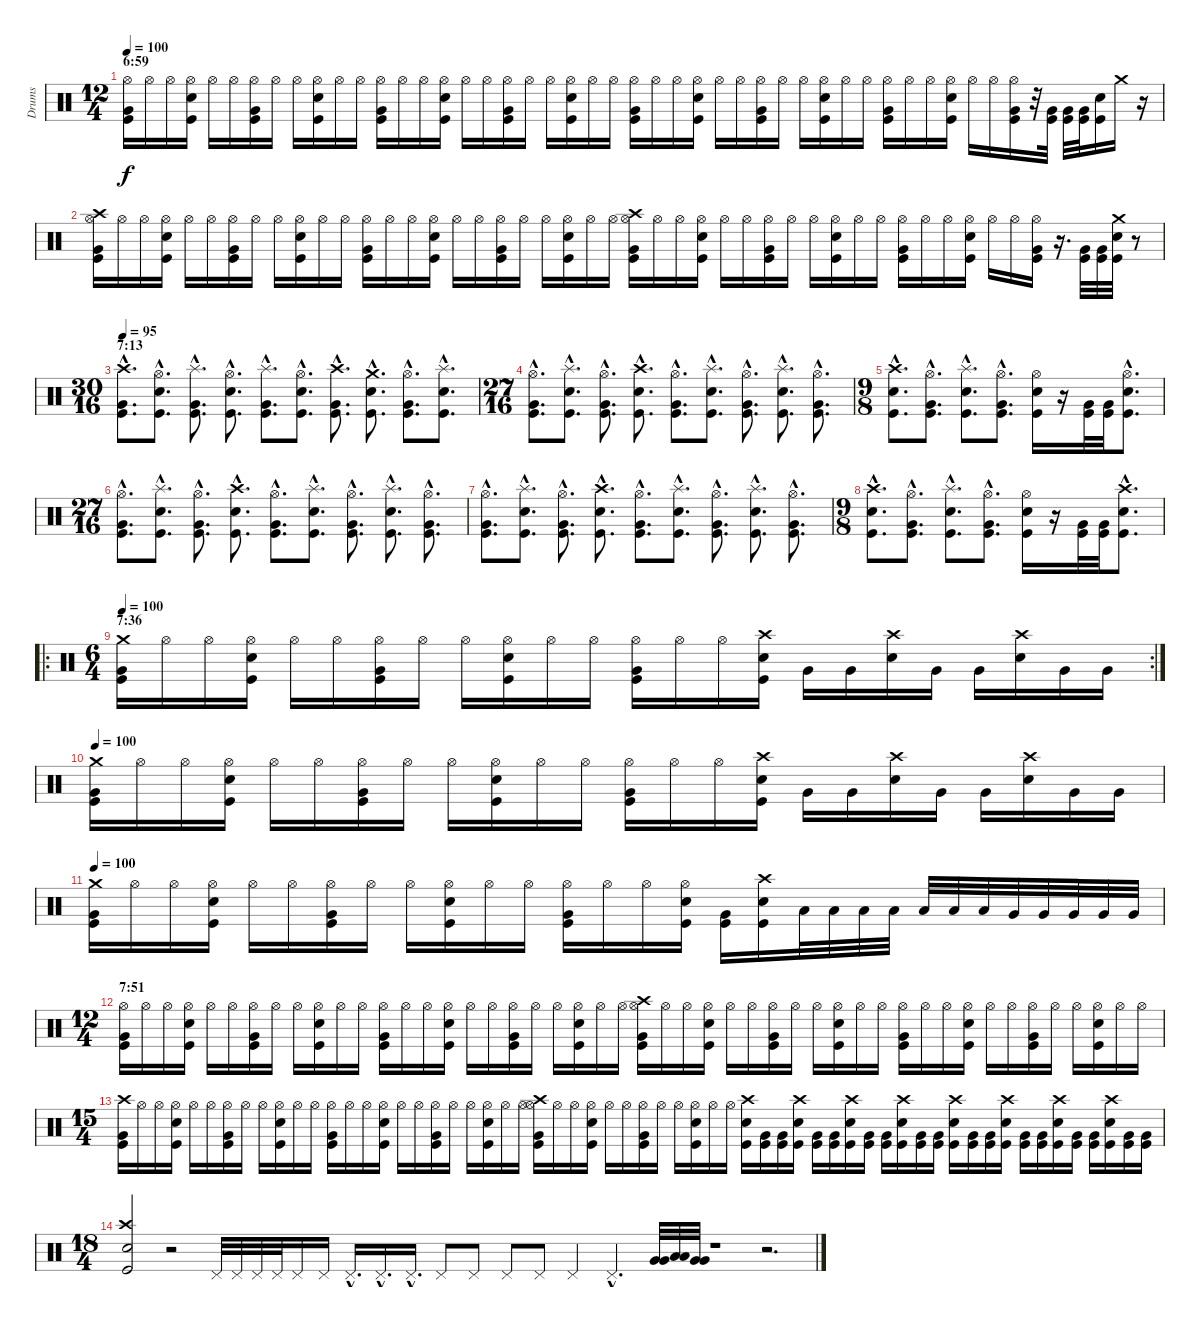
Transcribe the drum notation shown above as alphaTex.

\track ("Drums" "Drums") {instrument percussion}
\staff {score}
\articulation defaults
\ts (12 4)
\section ("" "6:59")
\tempo 100
\clef neutral
\ks c
("Hi-Hat (open)" "Very Low Tom (hit)" "Kick (hit)").16{dy f} "Hi-Hat (open)".16 "Hi-Hat (open)".16 ("Hi-Hat (open)" "Snare (hit) 2" "Kick (hit)").16 "Hi-Hat (open)".16 "Hi-Hat (open)".16 ("Hi-Hat (open)" "Very Low Tom (hit)" "Kick (hit)").16 "Hi-Hat (open)".16 "Hi-Hat (open)".16 ("Hi-Hat (open)" "Snare (hit) 2" "Kick (hit)").16 "Hi-Hat (open)".16 "Hi-Hat (open)".16 ("Hi-Hat (open)" "Very Low Tom (hit)" "Kick (hit)").16 "Hi-Hat (open)".16 "Hi-Hat (open)".16 ("Hi-Hat (open)" "Snare (hit) 2" "Kick (hit)").16 "Hi-Hat (open)".16 "Hi-Hat (open)".16 ("Hi-Hat (open)" "Very Low Tom (hit)" "Kick (hit)").16 "Hi-Hat (open)".16 "Hi-Hat (open)".16 ("Hi-Hat (open)" "Snare (hit) 2" "Kick (hit)").16 "Hi-Hat (open)".16 "Hi-Hat (open)".16 ("Hi-Hat (open)" "Very Low Tom (hit)" "Kick (hit)").16 "Hi-Hat (open)".16 "Hi-Hat (open)".16 ("Hi-Hat (open)" "Snare (hit) 2" "Kick (hit)").16 "Hi-Hat (open)".16 "Hi-Hat (open)".16 ("Hi-Hat (open)" "Very Low Tom (hit)" "Kick (hit)").16 "Hi-Hat (open)".16 "Hi-Hat (open)".16 ("Hi-Hat (open)" "Snare (hit) 2" "Kick (hit)").16 "Hi-Hat (open)".16 "Hi-Hat (open)".16 ("Hi-Hat (open)" "Very Low Tom (hit)" "Kick (hit)").16 "Hi-Hat (open)".16 "Hi-Hat (open)".16 ("Hi-Hat (open)" "Snare (hit) 2" "Kick (hit)").16 "Hi-Hat (open)".16 "Hi-Hat (open)".16 ("Hi-Hat (open)" "Very Low Tom (hit)" "Kick (hit)").16 r.32 ("Very Low Tom (hit)" "Kick (hit)").32 ("Very Low Tom (hit)" "Kick (hit)").32 ("Very Low Tom (hit)" "Kick (hit)").32 ("Snare (hit) 2" "Kick (hit)").16 "Crash medium (hit)".16 r.16 |
("Hi-Hat (open)" "Crash high (hit)" "Very Low Tom (hit)" "Kick (hit)").16 "Hi-Hat (open)".16 "Hi-Hat (open)".16 ("Hi-Hat (open)" "Snare (hit) 2" "Kick (hit)").16 "Hi-Hat (open)".16 "Hi-Hat (open)".16 ("Hi-Hat (open)" "Very Low Tom (hit)" "Kick (hit)").16 "Hi-Hat (open)".16 "Hi-Hat (open)".16 ("Hi-Hat (open)" "Snare (hit) 2" "Kick (hit)").16 "Hi-Hat (open)".16 "Hi-Hat (open)".16 ("Hi-Hat (open)" "Very Low Tom (hit)" "Kick (hit)").16 "Hi-Hat (open)".16 "Hi-Hat (open)".16 ("Hi-Hat (open)" "Snare (hit) 2" "Kick (hit)").16 "Hi-Hat (open)".16 "Hi-Hat (open)".16 ("Hi-Hat (open)" "Very Low Tom (hit)" "Kick (hit)").16 "Hi-Hat (open)".16 "Hi-Hat (open)".16 ("Hi-Hat (open)" "Snare (hit) 2" "Kick (hit)").16 "Hi-Hat (open)".16 "Hi-Hat (open)".16 ("Hi-Hat (open)" "Crash high (hit)" "Very Low Tom (hit)" "Kick (hit)").16 "Hi-Hat (open)".16 "Hi-Hat (open)".16 ("Hi-Hat (open)" "Snare (hit) 2" "Kick (hit)").16 "Hi-Hat (open)".16 "Hi-Hat (open)".16 ("Hi-Hat (open)" "Very Low Tom (hit)" "Kick (hit)").16 "Hi-Hat (open)".16 "Hi-Hat (open)".16 ("Hi-Hat (open)" "Snare (hit) 2" "Kick (hit)").16 "Hi-Hat (open)".16 "Hi-Hat (open)".16 ("Hi-Hat (open)" "Very Low Tom (hit)" "Kick (hit)").16 "Hi-Hat (open)".16 "Hi-Hat (open)".16 ("Hi-Hat (open)" "Snare (hit) 2" "Kick (hit)").16 "Hi-Hat (open)".16 "Hi-Hat (open)".16 ("Hi-Hat (open)" "Very Low Tom (hit)" "Kick (hit)").16 r.16{d} ("Very Low Tom (hit)" "Kick (hit)").32 ("Very Low Tom (hit)" "Kick (hit)").32 ("Crash medium (hit)" "Snare (hit) 2" "Kick (hit)").32 r.8 |
\ts (30 16)
\section ("" "7:13")
\tempo 95
("Crash high (hit)"{hac} "Very Low Tom (hit)"{hac} "Kick (hit)"{hac}).8{d} ("Hi-Hat (open)"{hac} "Snare (hit) 2"{hac} "Kick (hit)"{hac}).8{d} ("Splash (hit)"{hac} "Very Low Tom (hit)"{hac} "Kick (hit)"{hac}).8{d} ("Hi-Hat (open)"{hac} "Snare (hit) 2"{hac} "Kick (hit)"{hac}).8{d} ("Splash (hit)"{hac} "Very Low Tom (hit)"{hac} "Kick (hit)"{hac}).8{d} ("Hi-Hat (open)"{hac} "Snare (hit) 2"{hac} "Kick (hit)"{hac}).8{d} ("Crash high (hit)"{hac} "Very Low Tom (hit)"{hac} "Kick (hit)"{hac}).8{d} ("Crash medium (hit)"{hac} "Snare (hit) 2"{hac} "Kick (hit)"{hac}).8{d} ("Hi-Hat (open)"{hac} "Very Low Tom (hit)"{hac} "Kick (hit)"{hac}).8{d} ("Splash (hit)"{hac} "Snare (hit) 2"{hac} "Kick (hit)"{hac}).8{d} |
\ts (27 16)
("Hi-Hat (open)"{hac} "Very Low Tom (hit)"{hac} "Kick (hit)"{hac}).8{d} ("Splash (hit)"{hac} "Snare (hit) 2"{hac} "Kick (hit)"{hac}).8{d} ("Hi-Hat (open)"{hac} "Very Low Tom (hit)"{hac} "Kick (hit)"{hac}).8{d} ("Crash high (hit)"{hac} "Snare (hit) 2"{hac} "Kick (hit)"{hac}).8{d} ("Hi-Hat (open)"{hac} "Very Low Tom (hit)"{hac} "Kick (hit)"{hac}).8{d} ("Splash (hit)"{hac} "Snare (hit) 2"{hac} "Kick (hit)"{hac}).8{d} ("Hi-Hat (open)"{hac} "Very Low Tom (hit)"{hac} "Kick (hit)"{hac}).8{d} ("Splash (hit)"{hac} "Snare (hit) 2"{hac} "Kick (hit)"{hac}).8{d} ("Hi-Hat (open)"{hac} "Very Low Tom (hit)"{hac} "Kick (hit)"{hac}).8{d} |
\ts (9 8)
("Crash high (hit)"{hac} "Snare (hit) 2"{hac} "Kick (hit)"{hac}).8{d} ("Hi-Hat (open)"{hac} "Very Low Tom (hit)"{hac} "Kick (hit)"{hac}).8{d} ("Splash (hit)"{hac} "Snare (hit) 2"{hac} "Kick (hit)"{hac}).8{d} ("Hi-Hat (open)"{hac} "Very Low Tom (hit)"{hac} "Kick (hit)"{hac}).8{d} ("Hi-Hat (open)" "Snare (hit) 2" "Kick (hit)").16 r.16 ("Very Low Tom (hit)" "Kick (hit)").32 ("Very Low Tom (hit)" "Kick (hit)").32 ("Hi-Hat (open)"{hac} "Snare (hit) 2"{hac} "Kick (hit)"{hac}).8{d} |
\ts (27 16)
("Hi-Hat (open)"{hac} "Very Low Tom (hit)"{hac} "Kick (hit)"{hac}).8{d} ("Splash (hit)"{hac} "Snare (hit) 2"{hac} "Kick (hit)"{hac}).8{d} ("Hi-Hat (open)"{hac} "Very Low Tom (hit)"{hac} "Kick (hit)"{hac}).8{d} ("Crash high (hit)"{hac} "Snare (hit) 2"{hac} "Kick (hit)"{hac}).8{d} ("Hi-Hat (open)"{hac} "Very Low Tom (hit)"{hac} "Kick (hit)"{hac}).8{d} ("Splash (hit)"{hac} "Snare (hit) 2"{hac} "Kick (hit)"{hac}).8{d} ("Hi-Hat (open)"{hac} "Very Low Tom (hit)"{hac} "Kick (hit)"{hac}).8{d} ("Splash (hit)"{hac} "Snare (hit) 2"{hac} "Kick (hit)"{hac}).8{d} ("Hi-Hat (open)"{hac} "Very Low Tom (hit)"{hac} "Kick (hit)"{hac}).8{d} |
("Hi-Hat (open)"{hac} "Very Low Tom (hit)"{hac} "Kick (hit)"{hac}).8{d} ("Splash (hit)"{hac} "Snare (hit) 2"{hac} "Kick (hit)"{hac}).8{d} ("Hi-Hat (open)"{hac} "Very Low Tom (hit)"{hac} "Kick (hit)"{hac}).8{d} ("Crash high (hit)"{hac} "Snare (hit) 2"{hac} "Kick (hit)"{hac}).8{d} ("Hi-Hat (open)"{hac} "Very Low Tom (hit)"{hac} "Kick (hit)"{hac}).8{d} ("Splash (hit)"{hac} "Snare (hit) 2"{hac} "Kick (hit)"{hac}).8{d} ("Hi-Hat (open)"{hac} "Very Low Tom (hit)"{hac} "Kick (hit)"{hac}).8{d} ("Splash (hit)"{hac} "Snare (hit) 2"{hac} "Kick (hit)"{hac}).8{d} ("Hi-Hat (open)"{hac} "Very Low Tom (hit)"{hac} "Kick (hit)"{hac}).8{d} |
\ts (9 8)
("Crash high (hit)"{hac} "Snare (hit) 2"{hac} "Kick (hit)"{hac}).8{d} ("Hi-Hat (open)"{hac} "Very Low Tom (hit)"{hac} "Kick (hit)"{hac}).8{d} ("Splash (hit)"{hac} "Snare (hit) 2"{hac} "Kick (hit)"{hac}).8{d} ("Hi-Hat (open)"{hac} "Very Low Tom (hit)"{hac} "Kick (hit)"{hac}).8{d} ("Hi-Hat (open)" "Snare (hit) 2" "Kick (hit)").16 r.16 ("Very Low Tom (hit)" "Kick (hit)").32 ("Very Low Tom (hit)" "Kick (hit)").32 ("Crash high (hit)"{hac} "Snare (hit) 2"{hac} "Kick (hit)"{hac}).8{d} |
\ro
\rc 2
\ts (6 4)
\section ("" "7:36")
\tempo 100
("Crash medium (hit)" "Very Low Tom (hit)" "Kick (hit)").16 "Hi-Hat (open)".16 "Hi-Hat (open)".16 ("Hi-Hat (open)" "Snare (hit) 2" "Kick (hit)").16 "Hi-Hat (open)".16 "Hi-Hat (open)".16 ("Hi-Hat (open)" "Very Low Tom (hit)" "Kick (hit)").16 "Hi-Hat (open)".16 "Hi-Hat (open)".16 ("Hi-Hat (open)" "Snare (hit) 2" "Kick (hit)").16 "Hi-Hat (open)".16 "Hi-Hat (open)".16 ("Hi-Hat (open)" "Very Low Tom (hit)" "Kick (hit)").16 "Hi-Hat (open)".16 "Hi-Hat (open)".16 ("Crash high (hit)" "Snare (hit) 2" "Kick (hit)").16 "Very Low Tom (hit)".16 "Very Low Tom (hit)".16 ("Crash high (hit)" "Snare (hit) 2").16 "Very Low Tom (hit)".16 "Very Low Tom (hit)".16 ("Crash high (hit)" "Snare (hit) 2").16 "Very Low Tom (hit)".16 "Very Low Tom (hit)".16 |
\tempo 100
("Crash medium (hit)" "Very Low Tom (hit)" "Kick (hit)").16 "Hi-Hat (open)".16 "Hi-Hat (open)".16 ("Hi-Hat (open)" "Snare (hit) 2" "Kick (hit)").16 "Hi-Hat (open)".16 "Hi-Hat (open)".16 ("Hi-Hat (open)" "Very Low Tom (hit)" "Kick (hit)").16 "Hi-Hat (open)".16 "Hi-Hat (open)".16 ("Hi-Hat (open)" "Snare (hit) 2" "Kick (hit)").16 "Hi-Hat (open)".16 "Hi-Hat (open)".16 ("Hi-Hat (open)" "Very Low Tom (hit)" "Kick (hit)").16 "Hi-Hat (open)".16 "Hi-Hat (open)".16 ("Crash high (hit)" "Snare (hit) 2" "Kick (hit)").16 "Very Low Tom (hit)".16 "Very Low Tom (hit)".16 ("Crash high (hit)" "Snare (hit) 2").16 "Very Low Tom (hit)".16 "Very Low Tom (hit)".16 ("Crash high (hit)" "Snare (hit) 2").16 "Very Low Tom (hit)".16 "Very Low Tom (hit)".16 |
\tempo 100
("Crash medium (hit)" "Very Low Tom (hit)" "Kick (hit)").16 "Hi-Hat (open)".16 "Hi-Hat (open)".16 ("Hi-Hat (open)" "Snare (hit) 2" "Kick (hit)").16 "Hi-Hat (open)".16 "Hi-Hat (open)".16 ("Hi-Hat (open)" "Very Low Tom (hit)" "Kick (hit)").16 "Hi-Hat (open)".16 "Hi-Hat (open)".16 ("Hi-Hat (open)" "Snare (hit) 2" "Kick (hit)").16 "Hi-Hat (open)".16 "Hi-Hat (open)".16 ("Hi-Hat (open)" "Very Low Tom (hit)" "Kick (hit)").16 "Hi-Hat (open)".16 "Hi-Hat (open)".16 ("Hi-Hat (open)" "Snare (hit) 2" "Kick (hit)").16 ("Very Low Tom (hit)" "Kick (hit)").16 ("Crash high (hit)" "Snare (hit) 2" "Kick (hit)").16 "Low Tom (hit)".32 "Low Tom (hit)".32 "Low Tom (hit)".32 "Low Tom (hit)".32 "Low Tom (hit)".32 "Low Tom (hit)".32 "Low Tom (hit)".32 "Very Low Tom (hit)".32 "Very Low Tom (hit)".32 "Very Low Tom (hit)".32 "Very Low Tom (hit)".32 "Very Low Tom (hit)".32 |
\ts (12 4)
\section ("" "7:51")
("Hi-Hat (open)" "Very Low Tom (hit)" "Kick (hit)").16 "Hi-Hat (open)".16 "Hi-Hat (open)".16 ("Hi-Hat (open)" "Snare (hit) 2" "Kick (hit)").16 "Hi-Hat (open)".16 "Hi-Hat (open)".16 ("Hi-Hat (open)" "Very Low Tom (hit)" "Kick (hit)").16 "Hi-Hat (open)".16 "Hi-Hat (open)".16 ("Hi-Hat (open)" "Snare (hit) 2" "Kick (hit)").16 "Hi-Hat (open)".16 "Hi-Hat (open)".16 ("Hi-Hat (open)" "Very Low Tom (hit)" "Kick (hit)").16 "Hi-Hat (open)".16 "Hi-Hat (open)".16 ("Hi-Hat (open)" "Snare (hit) 2" "Kick (hit)").16 "Hi-Hat (open)".16 "Hi-Hat (open)".16 ("Hi-Hat (open)" "Very Low Tom (hit)" "Kick (hit)").16 "Hi-Hat (open)".16 "Hi-Hat (open)".16 ("Hi-Hat (open)" "Snare (hit) 2" "Kick (hit)").16 "Hi-Hat (open)".16 "Hi-Hat (open)".16 ("Hi-Hat (open)" "Crash high (hit)" "Very Low Tom (hit)" "Kick (hit)").16 "Hi-Hat (open)".16 "Hi-Hat (open)".16 ("Hi-Hat (open)" "Snare (hit) 2" "Kick (hit)").16 "Hi-Hat (open)".16 "Hi-Hat (open)".16 ("Hi-Hat (open)" "Very Low Tom (hit)" "Kick (hit)").16 "Hi-Hat (open)".16 "Hi-Hat (open)".16 ("Hi-Hat (open)" "Snare (hit) 2" "Kick (hit)").16 "Hi-Hat (open)".16 "Hi-Hat (open)".16 ("Hi-Hat (open)" "Very Low Tom (hit)" "Kick (hit)").16 "Hi-Hat (open)".16 "Hi-Hat (open)".16 ("Hi-Hat (open)" "Snare (hit) 2" "Kick (hit)").16 "Hi-Hat (open)".16 "Hi-Hat (open)".16 ("Hi-Hat (open)" "Very Low Tom (hit)" "Kick (hit)").16 "Hi-Hat (open)".16 "Hi-Hat (open)".16 ("Hi-Hat (open)" "Snare (hit) 2" "Kick (hit)").16 "Hi-Hat (open)".16 "Hi-Hat (open)".16 |
\ts (15 4)
("Crash high (hit)" "Very Low Tom (hit)" "Kick (hit)").16 "Hi-Hat (open)".16 "Hi-Hat (open)".16 ("Hi-Hat (open)" "Snare (hit) 2" "Kick (hit)").16 "Hi-Hat (open)".16 "Hi-Hat (open)".16 ("Hi-Hat (open)" "Very Low Tom (hit)" "Kick (hit)").16 "Hi-Hat (open)".16 "Hi-Hat (open)".16 ("Hi-Hat (open)" "Snare (hit) 2" "Kick (hit)").16 "Hi-Hat (open)".16 "Hi-Hat (open)".16 ("Hi-Hat (open)" "Very Low Tom (hit)" "Kick (hit)").16 "Hi-Hat (open)".16 "Hi-Hat (open)".16 ("Hi-Hat (open)" "Snare (hit) 2" "Kick (hit)").16 "Hi-Hat (open)".16 "Hi-Hat (open)".16 ("Hi-Hat (open)" "Very Low Tom (hit)" "Kick (hit)").16 "Hi-Hat (open)".16 "Hi-Hat (open)".16 ("Hi-Hat (open)" "Snare (hit) 2" "Kick (hit)").16 "Hi-Hat (open)".16 "Hi-Hat (open)".16 ("Hi-Hat (open)" "Crash high (hit)" "Very Low Tom (hit)" "Kick (hit)").16 "Hi-Hat (open)".16 "Hi-Hat (open)".16 ("Hi-Hat (open)" "Snare (hit) 2" "Kick (hit)").16 "Hi-Hat (open)".16 "Hi-Hat (open)".16 ("Hi-Hat (open)" "Very Low Tom (hit)" "Kick (hit)").16 "Hi-Hat (open)".16 "Hi-Hat (open)".16 ("Hi-Hat (open)" "Snare (hit) 2" "Kick (hit)").16 "Hi-Hat (open)".16 "Hi-Hat (open)".16 ("Crash high (hit)" "Snare (hit) 2" "Kick (hit)").16 ("Very Low Tom (hit)" "Kick (hit)").16 ("Very Low Tom (hit)" "Kick (hit)").16 ("Crash high (hit)" "Snare (hit) 2" "Kick (hit)").16 ("Very Low Tom (hit)" "Kick (hit)").16 ("Very Low Tom (hit)" "Kick (hit)").16 ("Crash high (hit)" "Snare (hit) 2" "Kick (hit)").16 ("Very Low Tom (hit)" "Kick (hit)").16 ("Very Low Tom (hit)" "Kick (hit)").16 ("Crash high (hit)" "Snare (hit) 2" "Kick (hit)").16 ("Very Low Tom (hit)" "Kick (hit)").16 ("Very Low Tom (hit)" "Kick (hit)").16 ("Crash high (hit)" "Snare (hit) 2" "Kick (hit)").16 ("Very Low Tom (hit)" "Kick (hit)").16 ("Very Low Tom (hit)" "Kick (hit)").16 ("Crash high (hit)" "Snare (hit) 2" "Kick (hit)").16 ("Very Low Tom (hit)" "Kick (hit)").16 ("Very Low Tom (hit)" "Kick (hit)").16 ("Crash high (hit)" "Snare (hit) 2" "Kick (hit)").16 ("Very Low Tom (hit)" "Kick (hit)").16 ("Very Low Tom (hit)" "Kick (hit)").16 ("Crash high (hit)" "Snare (hit) 2" "Kick (hit)").16 ("Very Low Tom (hit)" "Kick (hit)").16 ("Very Low Tom (hit)" "Kick (hit)").16 |
\ts (18 4)
("Crash high (hit)" "Electric Snare (hit)" "Kick (hit)").2 r.2 "Pedal Hi-Hat (hit)".32 "Pedal Hi-Hat (hit)".32 "Pedal Hi-Hat (hit)".32 "Pedal Hi-Hat (hit)".32 "Pedal Hi-Hat (hit)".16 "Pedal Hi-Hat (hit)".16 "Pedal Hi-Hat (hit)"{hac}.16{d} "Pedal Hi-Hat (hit)"{hac}.16{d} "Pedal Hi-Hat (hit)"{hac}.16{d} "Pedal Hi-Hat (hit)".8 "Pedal Hi-Hat (hit)".8 "Pedal Hi-Hat (hit)".8 "Pedal Hi-Hat (hit)".8 "Pedal Hi-Hat (hit)".4 "Pedal Hi-Hat (hit)"{hac}.4{d} ("Very Low Tom (hit)" "Very Low Tom (hit)").32 ("Low Tom (hit)" "Low Tom (hit)").32 ("Very Low Tom (hit)" "Very Low Tom (hit)").32 r.1 r.2{d}
